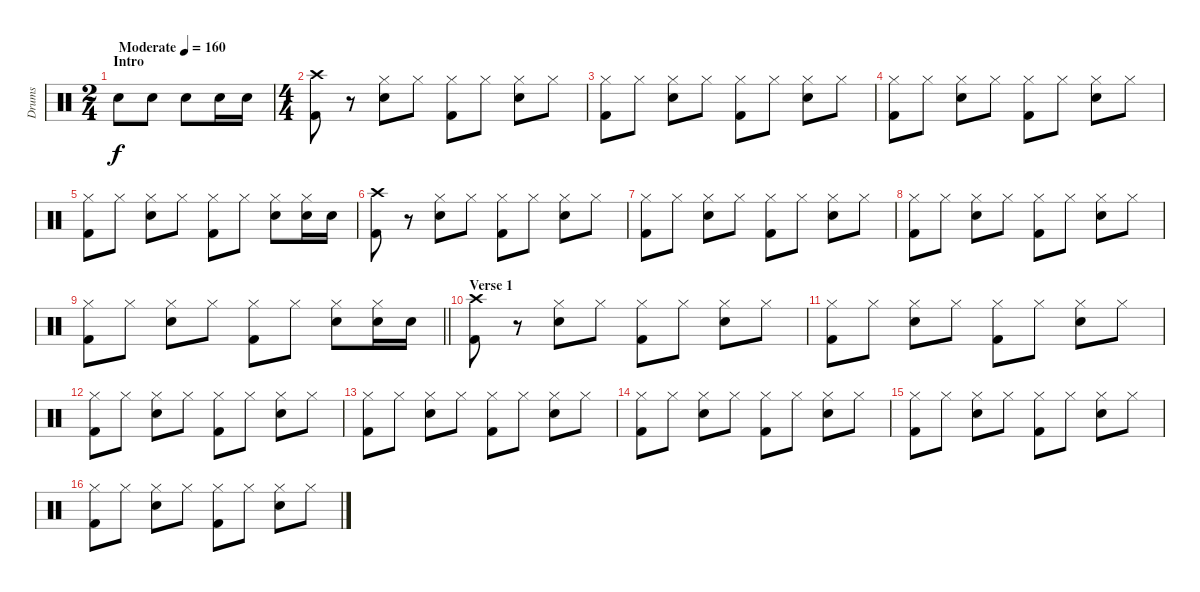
\track ("Drums" "Drums") {instrument percussion}
\staff {score}
\articulation defaults
\ts (2 4)
\section ("" "Intro")
\tempo (160 "Moderate")
\clef neutral
\ks c "Electric Snare (hit)".8{dy f} "Electric Snare (hit)".8 "Electric Snare (hit)".8 "Electric Snare (hit)".16 "Electric Snare (hit)".16
|
\ts (4 4)
("Crash high (hit)" "Kick (hit) 2").8 r.8 ("Hi-Hat (closed)" "Electric Snare (hit)").8 "Hi-Hat (closed)".8 ("Hi-Hat (closed)" "Kick (hit) 2").8 "Hi-Hat (closed)".8 ("Hi-Hat (closed)" "Electric Snare (hit)").8 "Hi-Hat (closed)".8 |
("Hi-Hat (closed)" "Kick (hit) 2").8 "Hi-Hat (closed)".8 ("Hi-Hat (closed)" "Electric Snare (hit)").8 "Hi-Hat (closed)".8 ("Hi-Hat (closed)" "Kick (hit) 2").8 "Hi-Hat (closed)".8 ("Hi-Hat (closed)" "Electric Snare (hit)").8 "Hi-Hat (closed)".8 |
("Hi-Hat (closed)" "Kick (hit) 2").8 "Hi-Hat (closed)".8 ("Hi-Hat (closed)" "Electric Snare (hit)").8 "Hi-Hat (closed)".8 ("Hi-Hat (closed)" "Kick (hit) 2").8 "Hi-Hat (closed)".8 ("Hi-Hat (closed)" "Electric Snare (hit)").8 "Hi-Hat (closed)".8 |
("Hi-Hat (closed)" "Kick (hit) 2").8 "Hi-Hat (closed)".8 ("Hi-Hat (closed)" "Electric Snare (hit)").8 "Hi-Hat (closed)".8 ("Hi-Hat (closed)" "Kick (hit) 2").8 "Hi-Hat (closed)".8 ("Hi-Hat (closed)" "Electric Snare (hit)").8 ("Hi-Hat (closed)" "Electric Snare (hit)").16 "Electric Snare (hit)".16 |
("Crash high (hit)" "Kick (hit) 2").8 r.8 ("Hi-Hat (closed)" "Electric Snare (hit)").8 "Hi-Hat (closed)".8 ("Hi-Hat (closed)" "Kick (hit) 2").8 "Hi-Hat (closed)".8 ("Hi-Hat (closed)" "Electric Snare (hit)").8 "Hi-Hat (closed)".8 |
("Hi-Hat (closed)" "Kick (hit) 2").8 "Hi-Hat (closed)".8 ("Hi-Hat (closed)" "Electric Snare (hit)").8 "Hi-Hat (closed)".8 ("Hi-Hat (closed)" "Kick (hit) 2").8 "Hi-Hat (closed)".8 ("Hi-Hat (closed)" "Electric Snare (hit)").8 "Hi-Hat (closed)".8 |
("Hi-Hat (closed)" "Kick (hit) 2").8 "Hi-Hat (closed)".8 ("Hi-Hat (closed)" "Electric Snare (hit)").8 "Hi-Hat (closed)".8 ("Hi-Hat (closed)" "Kick (hit) 2").8 "Hi-Hat (closed)".8 ("Hi-Hat (closed)" "Electric Snare (hit)").8 "Hi-Hat (closed)".8 |
\barLineRight lightlight
("Hi-Hat (closed)" "Kick (hit) 2").8 "Hi-Hat (closed)".8 ("Hi-Hat (closed)" "Electric Snare (hit)").8 "Hi-Hat (closed)".8 ("Hi-Hat (closed)" "Kick (hit) 2").8 "Hi-Hat (closed)".8 ("Hi-Hat (closed)" "Electric Snare (hit)").8 ("Hi-Hat (closed)" "Electric Snare (hit)").16 "Electric Snare (hit)".16 |
\section ("" "Verse 1")
("Crash high (hit)" "Kick (hit) 2").8 r.8 ("Hi-Hat (closed)" "Electric Snare (hit)").8 "Hi-Hat (closed)".8 ("Hi-Hat (closed)" "Kick (hit) 2").8 "Hi-Hat (closed)".8 ("Hi-Hat (closed)" "Electric Snare (hit)").8 "Hi-Hat (closed)".8 |
("Hi-Hat (closed)" "Kick (hit) 2").8 "Hi-Hat (closed)".8 ("Hi-Hat (closed)" "Electric Snare (hit)").8 "Hi-Hat (closed)".8 ("Hi-Hat (closed)" "Kick (hit) 2").8 "Hi-Hat (closed)".8 ("Hi-Hat (closed)" "Electric Snare (hit)").8 "Hi-Hat (closed)".8 |
("Hi-Hat (closed)" "Kick (hit) 2").8 "Hi-Hat (closed)".8 ("Hi-Hat (closed)" "Electric Snare (hit)").8 "Hi-Hat (closed)".8 ("Hi-Hat (closed)" "Kick (hit) 2").8 "Hi-Hat (closed)".8 ("Hi-Hat (closed)" "Electric Snare (hit)").8 "Hi-Hat (closed)".8 |
("Hi-Hat (closed)" "Kick (hit) 2").8 "Hi-Hat (closed)".8 ("Hi-Hat (closed)" "Electric Snare (hit)").8 "Hi-Hat (closed)".8 ("Hi-Hat (closed)" "Kick (hit) 2").8 "Hi-Hat (closed)".8 ("Hi-Hat (closed)" "Electric Snare (hit)").8 "Hi-Hat (closed)".8 |
("Hi-Hat (closed)" "Kick (hit) 2").8 "Hi-Hat (closed)".8 ("Hi-Hat (closed)" "Electric Snare (hit)").8 "Hi-Hat (closed)".8 ("Hi-Hat (closed)" "Kick (hit) 2").8 "Hi-Hat (closed)".8 ("Hi-Hat (closed)" "Electric Snare (hit)").8 "Hi-Hat (closed)".8 |
("Hi-Hat (closed)" "Kick (hit) 2").8 "Hi-Hat (closed)".8 ("Hi-Hat (closed)" "Electric Snare (hit)").8 "Hi-Hat (closed)".8 ("Hi-Hat (closed)" "Kick (hit) 2").8 "Hi-Hat (closed)".8 ("Hi-Hat (closed)" "Electric Snare (hit)").8 "Hi-Hat (closed)".8 |
("Hi-Hat (closed)" "Kick (hit) 2").8 "Hi-Hat (closed)".8 ("Hi-Hat (closed)" "Electric Snare (hit)").8 "Hi-Hat (closed)".8 ("Hi-Hat (closed)" "Kick (hit) 2").8 "Hi-Hat (closed)".8 ("Hi-Hat (closed)" "Electric Snare (hit)").8 "Hi-Hat (closed)".8
